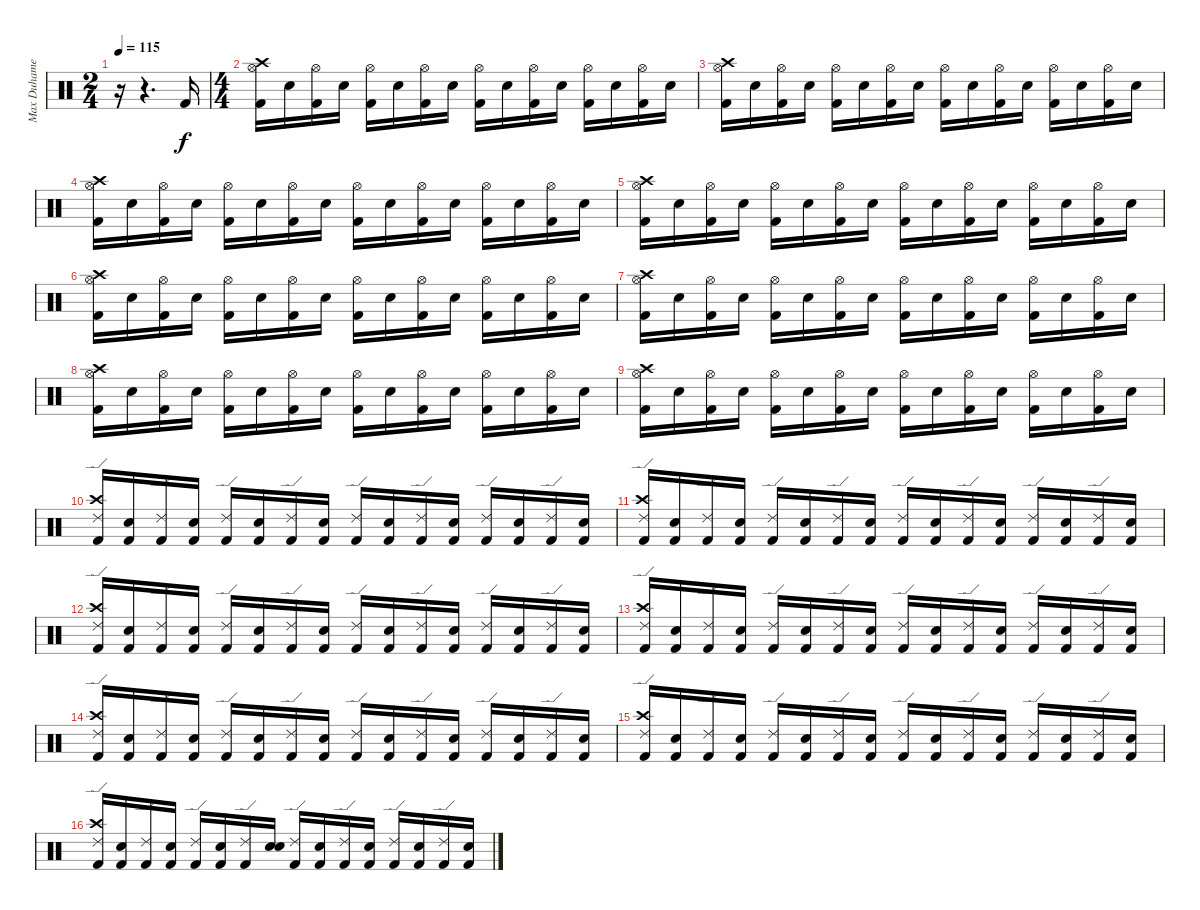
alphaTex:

\track ("Max Duhamel (Drums)" "Max Duhame") {instrument percussion}
\staff {score}
\articulation defaults
\ts (2 4)
\tempo 115
\clef neutral
\ks c
r.16{dy f} r.4{d} "Kick (hit) 2".16 |
\ts (4 4)
("Crash high (hit)" "Hi-Hat (open)" "Kick (hit) 2").16 "Electric Snare (hit)".16 ("Hi-Hat (open)" "Kick (hit) 2").16 "Electric Snare (hit)".16 ("Hi-Hat (open)" "Kick (hit) 2").16 "Electric Snare (hit)".16 ("Hi-Hat (open)" "Kick (hit) 2").16 "Electric Snare (hit)".16 ("Hi-Hat (open)" "Kick (hit) 2").16 "Electric Snare (hit)".16 ("Hi-Hat (open)" "Kick (hit) 2").16 "Electric Snare (hit)".16 ("Hi-Hat (open)" "Kick (hit) 2").16 "Electric Snare (hit)".16 ("Hi-Hat (open)" "Kick (hit) 2").16 "Electric Snare (hit)".16 |
("Crash high (hit)" "Hi-Hat (open)" "Kick (hit) 2").16 "Electric Snare (hit)".16 ("Hi-Hat (open)" "Kick (hit) 2").16 "Electric Snare (hit)".16 ("Hi-Hat (open)" "Kick (hit) 2").16 "Electric Snare (hit)".16 ("Hi-Hat (open)" "Kick (hit) 2").16 "Electric Snare (hit)".16 ("Hi-Hat (open)" "Kick (hit) 2").16 "Electric Snare (hit)".16 ("Hi-Hat (open)" "Kick (hit) 2").16 "Electric Snare (hit)".16 ("Hi-Hat (open)" "Kick (hit) 2").16 "Electric Snare (hit)".16 ("Hi-Hat (open)" "Kick (hit) 2").16 "Electric Snare (hit)".16 |
("Crash high (hit)" "Hi-Hat (open)" "Kick (hit) 2").16 "Electric Snare (hit)".16 ("Hi-Hat (open)" "Kick (hit) 2").16 "Electric Snare (hit)".16 ("Hi-Hat (open)" "Kick (hit) 2").16 "Electric Snare (hit)".16 ("Hi-Hat (open)" "Kick (hit) 2").16 "Electric Snare (hit)".16 ("Hi-Hat (open)" "Kick (hit) 2").16 "Electric Snare (hit)".16 ("Hi-Hat (open)" "Kick (hit) 2").16 "Electric Snare (hit)".16 ("Hi-Hat (open)" "Kick (hit) 2").16 "Electric Snare (hit)".16 ("Hi-Hat (open)" "Kick (hit) 2").16 "Electric Snare (hit)".16 |
("Crash high (hit)" "Hi-Hat (open)" "Kick (hit) 2").16 "Electric Snare (hit)".16 ("Hi-Hat (open)" "Kick (hit) 2").16 "Electric Snare (hit)".16 ("Hi-Hat (open)" "Kick (hit) 2").16 "Electric Snare (hit)".16 ("Hi-Hat (open)" "Kick (hit) 2").16 "Electric Snare (hit)".16 ("Hi-Hat (open)" "Kick (hit) 2").16 "Electric Snare (hit)".16 ("Hi-Hat (open)" "Kick (hit) 2").16 "Electric Snare (hit)".16 ("Hi-Hat (open)" "Kick (hit) 2").16 "Electric Snare (hit)".16 ("Hi-Hat (open)" "Kick (hit) 2").16 "Electric Snare (hit)".16 |
("Crash high (hit)" "Hi-Hat (open)" "Kick (hit) 2").16 "Electric Snare (hit)".16 ("Hi-Hat (open)" "Kick (hit) 2").16 "Electric Snare (hit)".16 ("Hi-Hat (open)" "Kick (hit) 2").16 "Electric Snare (hit)".16 ("Hi-Hat (open)" "Kick (hit) 2").16 "Electric Snare (hit)".16 ("Hi-Hat (open)" "Kick (hit) 2").16 "Electric Snare (hit)".16 ("Hi-Hat (open)" "Kick (hit) 2").16 "Electric Snare (hit)".16 ("Hi-Hat (open)" "Kick (hit) 2").16 "Electric Snare (hit)".16 ("Hi-Hat (open)" "Kick (hit) 2").16 "Electric Snare (hit)".16 |
("Crash high (hit)" "Hi-Hat (open)" "Kick (hit) 2").16 "Electric Snare (hit)".16 ("Hi-Hat (open)" "Kick (hit) 2").16 "Electric Snare (hit)".16 ("Hi-Hat (open)" "Kick (hit) 2").16 "Electric Snare (hit)".16 ("Hi-Hat (open)" "Kick (hit) 2").16 "Electric Snare (hit)".16 ("Hi-Hat (open)" "Kick (hit) 2").16 "Electric Snare (hit)".16 ("Hi-Hat (open)" "Kick (hit) 2").16 "Electric Snare (hit)".16 ("Hi-Hat (open)" "Kick (hit) 2").16 "Electric Snare (hit)".16 ("Hi-Hat (open)" "Kick (hit) 2").16 "Electric Snare (hit)".16 |
("Crash high (hit)" "Hi-Hat (open)" "Kick (hit) 2").16 "Electric Snare (hit)".16 ("Hi-Hat (open)" "Kick (hit) 2").16 "Electric Snare (hit)".16 ("Hi-Hat (open)" "Kick (hit) 2").16 "Electric Snare (hit)".16 ("Hi-Hat (open)" "Kick (hit) 2").16 "Electric Snare (hit)".16 ("Hi-Hat (open)" "Kick (hit) 2").16 "Electric Snare (hit)".16 ("Hi-Hat (open)" "Kick (hit) 2").16 "Electric Snare (hit)".16 ("Hi-Hat (open)" "Kick (hit) 2").16 "Electric Snare (hit)".16 ("Hi-Hat (open)" "Kick (hit) 2").16 "Electric Snare (hit)".16 |
("Crash high (hit)" "Hi-Hat (open)" "Kick (hit) 2").16 "Electric Snare (hit)".16 ("Hi-Hat (open)" "Kick (hit) 2").16 "Electric Snare (hit)".16 ("Hi-Hat (open)" "Kick (hit) 2").16 "Electric Snare (hit)".16 ("Hi-Hat (open)" "Kick (hit) 2").16 "Electric Snare (hit)".16 ("Hi-Hat (open)" "Kick (hit) 2").16 "Electric Snare (hit)".16 ("Hi-Hat (open)" "Kick (hit) 2").16 "Electric Snare (hit)".16 ("Hi-Hat (open)" "Kick (hit) 2").16 "Electric Snare (hit)".16 ("Hi-Hat (open)" "Kick (hit) 2").16 "Electric Snare (hit)".16 |
("Crash high (hit)" "Ride (edge) 2" "Kick (hit) 2").16 ("Electric Snare (hit)" "Kick (hit) 2").16 ("Ride (edge) 2" "Kick (hit) 2").16 ("Electric Snare (hit)" "Kick (hit) 2").16 ("Ride (edge) 2" "Kick (hit) 2").16 ("Electric Snare (hit)" "Kick (hit) 2").16 ("Ride (edge) 2" "Kick (hit) 2").16 ("Electric Snare (hit)" "Kick (hit) 2").16 ("Ride (edge) 2" "Kick (hit) 2").16 ("Electric Snare (hit)" "Kick (hit) 2").16 ("Ride (edge) 2" "Kick (hit) 2").16 ("Electric Snare (hit)" "Kick (hit) 2").16 ("Ride (edge) 2" "Kick (hit) 2").16 ("Electric Snare (hit)" "Kick (hit) 2").16 ("Ride (edge) 2" "Kick (hit) 2").16 ("Electric Snare (hit)" "Kick (hit) 2").16 |
("Crash high (hit)" "Ride (edge) 2" "Kick (hit) 2").16 ("Electric Snare (hit)" "Kick (hit) 2").16 ("Ride (edge) 2" "Kick (hit) 2").16 ("Electric Snare (hit)" "Kick (hit) 2").16 ("Ride (edge) 2" "Kick (hit) 2").16 ("Electric Snare (hit)" "Kick (hit) 2").16 ("Ride (edge) 2" "Kick (hit) 2").16 ("Electric Snare (hit)" "Kick (hit) 2").16 ("Ride (edge) 2" "Kick (hit) 2").16 ("Electric Snare (hit)" "Kick (hit) 2").16 ("Ride (edge) 2" "Kick (hit) 2").16 ("Electric Snare (hit)" "Kick (hit) 2").16 ("Ride (edge) 2" "Kick (hit) 2").16 ("Electric Snare (hit)" "Kick (hit) 2").16 ("Ride (edge) 2" "Kick (hit) 2").16 ("Electric Snare (hit)" "Kick (hit) 2").16 |
("Crash high (hit)" "Ride (edge) 2" "Kick (hit) 2").16 ("Electric Snare (hit)" "Kick (hit) 2").16 ("Ride (edge) 2" "Kick (hit) 2").16 ("Electric Snare (hit)" "Kick (hit) 2").16 ("Ride (edge) 2" "Kick (hit) 2").16 ("Electric Snare (hit)" "Kick (hit) 2").16 ("Ride (edge) 2" "Kick (hit) 2").16 ("Electric Snare (hit)" "Kick (hit) 2").16 ("Ride (edge) 2" "Kick (hit) 2").16 ("Electric Snare (hit)" "Kick (hit) 2").16 ("Ride (edge) 2" "Kick (hit) 2").16 ("Electric Snare (hit)" "Kick (hit) 2").16 ("Ride (edge) 2" "Kick (hit) 2").16 ("Electric Snare (hit)" "Kick (hit) 2").16 ("Ride (edge) 2" "Kick (hit) 2").16 ("Electric Snare (hit)" "Kick (hit) 2").16 |
("Crash high (hit)" "Ride (edge) 2" "Kick (hit) 2").16 ("Electric Snare (hit)" "Kick (hit) 2").16 ("Ride (edge) 2" "Kick (hit) 2").16 ("Electric Snare (hit)" "Kick (hit) 2").16 ("Ride (edge) 2" "Kick (hit) 2").16 ("Electric Snare (hit)" "Kick (hit) 2").16 ("Ride (edge) 2" "Kick (hit) 2").16 ("Electric Snare (hit)" "Kick (hit) 2").16 ("Ride (edge) 2" "Kick (hit) 2").16 ("Electric Snare (hit)" "Kick (hit) 2").16 ("Ride (edge) 2" "Kick (hit) 2").16 ("Electric Snare (hit)" "Kick (hit) 2").16 ("Ride (edge) 2" "Kick (hit) 2").16 ("Electric Snare (hit)" "Kick (hit) 2").16 ("Ride (edge) 2" "Kick (hit) 2").16 ("Electric Snare (hit)" "Kick (hit) 2").16 |
("Crash high (hit)" "Ride (edge) 2" "Kick (hit) 2").16 ("Electric Snare (hit)" "Kick (hit) 2").16 ("Ride (edge) 2" "Kick (hit) 2").16 ("Electric Snare (hit)" "Kick (hit) 2").16 ("Ride (edge) 2" "Kick (hit) 2").16 ("Electric Snare (hit)" "Kick (hit) 2").16 ("Ride (edge) 2" "Kick (hit) 2").16 ("Electric Snare (hit)" "Kick (hit) 2").16 ("Ride (edge) 2" "Kick (hit) 2").16 ("Electric Snare (hit)" "Kick (hit) 2").16 ("Ride (edge) 2" "Kick (hit) 2").16 ("Electric Snare (hit)" "Kick (hit) 2").16 ("Ride (edge) 2" "Kick (hit) 2").16 ("Electric Snare (hit)" "Kick (hit) 2").16 ("Ride (edge) 2" "Kick (hit) 2").16 ("Electric Snare (hit)" "Kick (hit) 2").16 |
("Crash high (hit)" "Ride (edge) 2" "Kick (hit) 2").16 ("Electric Snare (hit)" "Kick (hit) 2").16 ("Ride (edge) 2" "Kick (hit) 2").16 ("Electric Snare (hit)" "Kick (hit) 2").16 ("Ride (edge) 2" "Kick (hit) 2").16 ("Electric Snare (hit)" "Kick (hit) 2").16 ("Ride (edge) 2" "Kick (hit) 2").16 ("Electric Snare (hit)" "Kick (hit) 2").16 ("Ride (edge) 2" "Kick (hit) 2").16 ("Electric Snare (hit)" "Kick (hit) 2").16 ("Ride (edge) 2" "Kick (hit) 2").16 ("Electric Snare (hit)" "Kick (hit) 2").16 ("Ride (edge) 2" "Kick (hit) 2").16 ("Electric Snare (hit)" "Kick (hit) 2").16 ("Ride (edge) 2" "Kick (hit) 2").16 ("Electric Snare (hit)" "Kick (hit) 2").16 |
("Crash high (hit)" "Ride (edge) 2" "Kick (hit) 2").16 ("Electric Snare (hit)" "Kick (hit) 2").16 ("Ride (edge) 2" "Kick (hit) 2").16 ("Electric Snare (hit)" "Kick (hit) 2").16 ("Ride (edge) 2" "Kick (hit) 2").16 ("Electric Snare (hit)" "Kick (hit) 2").16 ("Ride (edge) 2" "Kick (hit) 2").16 ("Electric Snare (hit)" "Snare (hit)").16 ("Ride (edge) 2" "Kick (hit) 2").16 ("Electric Snare (hit)" "Kick (hit) 2").16 ("Ride (edge) 2" "Kick (hit) 2").16 ("Electric Snare (hit)" "Kick (hit) 2").16 ("Ride (edge) 2" "Kick (hit) 2").16 ("Electric Snare (hit)" "Kick (hit) 2").16 ("Ride (edge) 2" "Kick (hit) 2").16 ("Electric Snare (hit)" "Kick (hit) 2").16
